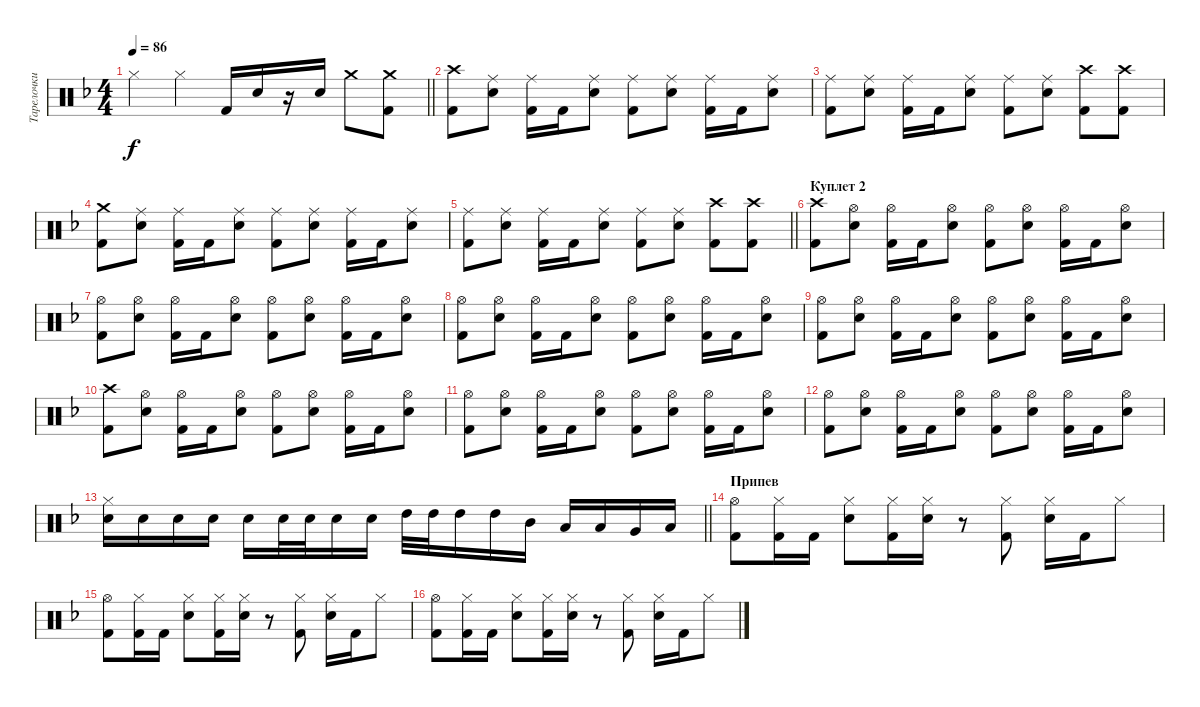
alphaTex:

\track ("Тарелочки" "Тарелочки") {instrument percussion}
\staff {score}
\articulation defaults
\ts (4 4)
\tempo 86
\clef neutral
\barLineRight lightlight
\ks f "Hi-Hat (closed)".4{dy f} "Hi-Hat (closed)".4 "Kick (hit) 2".16 "Snare (hit) 2".16
r.16 "Snare (hit) 2".16 "Crash medium (hit)".8 ("Kick (hit) 2" "Crash medium (hit)").8 |
("Kick (hit) 2" "Crash high (hit)").8 ("Snare (hit) 2" "Ride (middle)").8 ("Kick (hit) 2" "Ride (middle)").16 "Kick (hit) 2".16 ("Snare (hit) 2" "Ride (middle)").8 ("Kick (hit) 2" "Ride (middle)").8 ("Snare (hit) 2" "Ride (middle)").8 ("Kick (hit) 2" "Ride (middle)").16 "Kick (hit) 2".16 ("Snare (hit) 2" "Ride (middle)").8 |
("Kick (hit) 2" "Ride (middle)").8 ("Snare (hit) 2" "Ride (middle)").8 ("Kick (hit) 2" "Ride (middle)").16 "Kick (hit) 2".16 ("Snare (hit) 2" "Ride (middle)").8 ("Kick (hit) 2" "Ride (middle)").8 ("Snare (hit) 2" "Ride (middle)").8 ("Kick (hit) 2" "Crash high (hit)").8 ("Kick (hit) 2" "Crash high (hit)").8 |
("Kick (hit) 2" "Crash medium (hit)").8 ("Snare (hit) 2" "Ride (middle)").8 ("Kick (hit) 2" "Ride (middle)").16 "Kick (hit) 2".16 ("Snare (hit) 2" "Ride (middle)").8 ("Kick (hit) 2" "Ride (middle)").8 ("Snare (hit) 2" "Ride (middle)").8 ("Kick (hit) 2" "Ride (middle)").16 "Kick (hit) 2".16 ("Snare (hit) 2" "Ride (middle)").8 |
\barLineRight lightlight
("Kick (hit) 2" "Ride (middle)").8 ("Snare (hit) 2" "Ride (middle)").8 ("Kick (hit) 2" "Ride (middle)").16 "Kick (hit) 2".16 ("Snare (hit) 2" "Ride (middle)").8 ("Kick (hit) 2" "Ride (middle)").8 ("Snare (hit) 2" "Ride (middle)").8 ("Kick (hit) 2" "Crash high (hit)").8 ("Kick (hit) 2" "Crash high (hit)").8 |
\section ("" "Куплет 2")
("Kick (hit) 2" "Crash high (hit)").8 ("Snare (hit) 2" "Hi-Hat (open)").8 ("Kick (hit) 2" "Hi-Hat (open)").16 "Kick (hit) 2".16 ("Snare (hit) 2" "Hi-Hat (open)").8 ("Kick (hit) 2" "Hi-Hat (open)").8 ("Snare (hit) 2" "Hi-Hat (open)").8 ("Kick (hit) 2" "Hi-Hat (open)").16 "Kick (hit) 2".16 ("Snare (hit) 2" "Hi-Hat (open)").8 |
("Kick (hit) 2" "Hi-Hat (open)").8 ("Snare (hit) 2" "Hi-Hat (open)").8 ("Kick (hit) 2" "Hi-Hat (open)").16 "Kick (hit) 2".16 ("Snare (hit) 2" "Hi-Hat (open)").8 ("Kick (hit) 2" "Hi-Hat (open)").8 ("Snare (hit) 2" "Hi-Hat (open)").8 ("Kick (hit) 2" "Hi-Hat (open)").16 "Kick (hit) 2".16 ("Snare (hit) 2" "Hi-Hat (open)").8 |
("Kick (hit) 2" "Hi-Hat (open)").8 ("Snare (hit) 2" "Hi-Hat (open)").8 ("Kick (hit) 2" "Hi-Hat (open)").16 "Kick (hit) 2".16 ("Snare (hit) 2" "Hi-Hat (open)").8 ("Kick (hit) 2" "Hi-Hat (open)").8 ("Snare (hit) 2" "Hi-Hat (open)").8 ("Kick (hit) 2" "Hi-Hat (open)").16 "Kick (hit) 2".16 ("Snare (hit) 2" "Hi-Hat (open)").8 |
("Kick (hit) 2" "Hi-Hat (open)").8 ("Snare (hit) 2" "Hi-Hat (open)").8 ("Kick (hit) 2" "Hi-Hat (open)").16 "Kick (hit) 2".16 ("Snare (hit) 2" "Hi-Hat (open)").8 ("Kick (hit) 2" "Hi-Hat (open)").8 ("Snare (hit) 2" "Hi-Hat (open)").8 ("Kick (hit) 2" "Hi-Hat (open)").16 "Kick (hit) 2".16 ("Snare (hit) 2" "Hi-Hat (open)").8 |
("Kick (hit) 2" "Crash high (hit)").8 ("Snare (hit) 2" "Hi-Hat (open)").8 ("Kick (hit) 2" "Hi-Hat (open)").16 "Kick (hit) 2".16 ("Snare (hit) 2" "Hi-Hat (open)").8 ("Kick (hit) 2" "Hi-Hat (open)").8 ("Snare (hit) 2" "Hi-Hat (open)").8 ("Kick (hit) 2" "Hi-Hat (open)").16 "Kick (hit) 2".16 ("Snare (hit) 2" "Hi-Hat (open)").8 |
("Kick (hit) 2" "Hi-Hat (open)").8 ("Snare (hit) 2" "Hi-Hat (open)").8 ("Kick (hit) 2" "Hi-Hat (open)").16 "Kick (hit) 2".16 ("Snare (hit) 2" "Hi-Hat (open)").8 ("Kick (hit) 2" "Hi-Hat (open)").8 ("Snare (hit) 2" "Hi-Hat (open)").8 ("Kick (hit) 2" "Hi-Hat (open)").16 "Kick (hit) 2".16 ("Snare (hit) 2" "Hi-Hat (open)").8 |
("Kick (hit) 2" "Hi-Hat (open)").8 ("Snare (hit) 2" "Hi-Hat (open)").8 ("Kick (hit) 2" "Hi-Hat (open)").16 "Kick (hit) 2".16 ("Snare (hit) 2" "Hi-Hat (open)").8 ("Kick (hit) 2" "Hi-Hat (open)").8 ("Snare (hit) 2" "Hi-Hat (open)").8 ("Kick (hit) 2" "Hi-Hat (open)").16 "Kick (hit) 2".16 ("Snare (hit) 2" "Hi-Hat (open)").8 |
\barLineRight lightlight
("Snare (hit) 2" "Hi-Hat (closed)").16 "Snare (hit) 2".16 "Snare (hit) 2".16 "Snare (hit) 2".16 "Snare (hit) 2".16 "Electric Snare (hit)".32 "Snare (hit) 2".32 "Snare (hit) 2".16 "Snare (hit) 2".16 "High Tom (hit)".32 "High Tom (hit)".32 "High Tom (hit)".16 "High Tom (hit)".16 "Mid Tom (hit)".16 "Low Tom (hit)".16 "Low Tom (hit)".16 "Very Low Tom (hit)".16 "Low Floor Tom (hit)".16 |
\section ("" "Припев")
("Kick (hit) 2" "Hi-Hat (open)").8 ("Kick (hit) 2" "Hi-Hat (closed)").16 "Kick (hit) 2".16 ("Snare (hit) 2" "Hi-Hat (closed)").8 ("Kick (hit) 2" "Hi-Hat (closed)").16 ("Snare (hit) 2" "Hi-Hat (closed)").16 r.8 ("Kick (hit) 2" "Hi-Hat (closed)").8 ("Snare (hit) 2" "Hi-Hat (closed)").16 "Kick (hit) 2".16 "Hi-Hat (closed)".8 |
("Kick (hit) 2" "Hi-Hat (open)").8 ("Kick (hit) 2" "Hi-Hat (closed)").16 "Kick (hit) 2".16 ("Snare (hit) 2" "Hi-Hat (closed)").8 ("Kick (hit) 2" "Hi-Hat (closed)").16 ("Snare (hit) 2" "Hi-Hat (closed)").16 r.8 ("Kick (hit) 2" "Hi-Hat (closed)").8 ("Snare (hit) 2" "Hi-Hat (closed)").16 "Kick (hit) 2".16 "Hi-Hat (closed)".8 |
("Kick (hit) 2" "Hi-Hat (open)").8 ("Kick (hit) 2" "Hi-Hat (closed)").16 "Kick (hit) 2".16 ("Snare (hit) 2" "Hi-Hat (closed)").8 ("Kick (hit) 2" "Hi-Hat (closed)").16 ("Snare (hit) 2" "Hi-Hat (closed)").16 r.8 ("Kick (hit) 2" "Hi-Hat (closed)").8 ("Snare (hit) 2" "Hi-Hat (closed)").16 "Kick (hit) 2".16 "Hi-Hat (closed)".8
